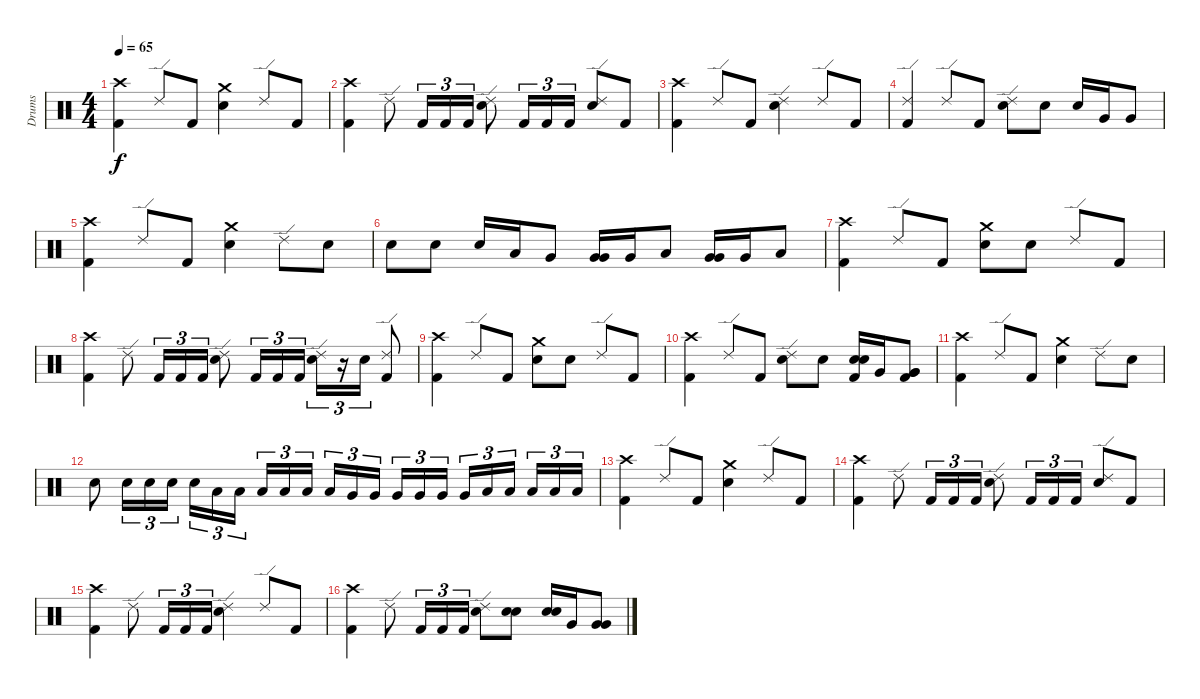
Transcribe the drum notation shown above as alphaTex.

\track ("Drums" "Drums") {instrument percussion}
\staff {score}
\articulation defaults
\ts (4 4)
\tempo 65
\clef neutral
\ks c
("Crash high (hit)" "Kick (hit) 2").4{dy f} "Ride (edge) 2".8 "Kick (hit) 2".8 ("Crash medium (hit)" "Electric Snare (hit)").4 "Ride (edge) 2".8 "Kick (hit) 2".8 |
("Crash high (hit)" "Kick (hit) 2").4 "Ride (edge) 2".8 "Kick (hit) 2".16{tu (3 2)} "Kick (hit) 2".16{tu (3 2)} "Kick (hit) 2".16{tu (3 2)} ("Ride (edge) 2" "Electric Snare (hit)").8 "Kick (hit) 2".16{tu (3 2)} "Kick (hit) 2".16{tu (3 2)} "Kick (hit) 2".16{tu (3 2)} ("Ride (edge) 2" "Electric Snare (hit)").8 "Kick (hit) 2".8 |
("Crash high (hit)" "Kick (hit) 2").4 "Ride (edge) 2".8 "Kick (hit) 2".8 ("Ride (edge) 2" "Electric Snare (hit)").4 "Ride (edge) 2".8 "Kick (hit) 2".8 |
("Ride (edge) 2" "Kick (hit) 2").4 "Ride (edge) 2".8 "Kick (hit) 2".8 ("Ride (edge) 2" "Electric Snare (hit)").8 "Electric Snare (hit)".8 "Electric Snare (hit)".16 "Very Low Tom (hit)".16 "Very Low Tom (hit)".8 |
("Crash high (hit)" "Kick (hit) 2").4 "Ride (edge) 2".8 "Kick (hit) 2".8 ("Crash medium (hit)" "Electric Snare (hit)").4 "Ride (edge) 2".8 "Electric Snare (hit)".8 |
"Electric Snare (hit)".8 "Electric Snare (hit)".8 "Electric Snare (hit)".16 "Low Tom (hit)".16 "Very Low Tom (hit)".8 ("Very Low Tom (hit)" "Very Low Tom (hit)").16{bu 60} "Very Low Tom (hit)".16 "Low Floor Tom (hit)".8 ("Very Low Tom (hit)" "Very Low Tom (hit)").16{bu 60} "Very Low Tom (hit)".16 "Low Floor Tom (hit)".8 |
("Crash high (hit)" "Kick (hit) 2").4 "Ride (edge) 2".8 "Kick (hit) 2".8 ("Crash medium (hit)" "Electric Snare (hit)").8 "Electric Snare (hit)".8 "Ride (edge) 2".8 "Kick (hit) 2".8 |
("Crash high (hit)" "Kick (hit) 2").4 "Ride (edge) 2".8 "Kick (hit) 2".16{tu (3 2)} "Kick (hit) 2".16{tu (3 2)} "Kick (hit) 2".16{tu (3 2)} ("Ride (edge) 2" "Electric Snare (hit)").8 "Kick (hit) 2".16{tu (3 2)} "Kick (hit) 2".16{tu (3 2)} "Kick (hit) 2".16{tu (3 2)} ("Ride (edge) 2" "Electric Snare (hit)").16{tu (3 2)} r.16{tu (3 2)} "Electric Snare (hit)".16{tu (3 2)} ("Ride (edge) 2" "Kick (hit) 2").8 |
("Crash high (hit)" "Kick (hit) 2").4 "Ride (edge) 2".8 "Kick (hit) 2".8 ("Crash medium (hit)" "Electric Snare (hit)").8 "Electric Snare (hit)".8 "Ride (edge) 2".8 "Kick (hit) 2".8 |
("Crash high (hit)" "Kick (hit) 2").4 "Ride (edge) 2".8 "Kick (hit) 2".8 ("Ride (edge) 2" "Electric Snare (hit)").8 "Electric Snare (hit)".8 ("Electric Snare (hit)" "Electric Snare (hit)" "Kick (hit) 2").16{bu 60} "Very Low Tom (hit)".16 ("Very Low Tom (hit)" "Very Low Tom (hit)" "Kick (hit) 2").8{bu 60} |
("Crash high (hit)" "Kick (hit) 2").4 "Ride (edge) 2".8 "Kick (hit) 2".8 ("Crash medium (hit)" "Electric Snare (hit)").4 "Ride (edge) 2".8 "Electric Snare (hit)".8 |
"Electric Snare (hit)".8 "Electric Snare (hit)".16{tu (3 2)} "Electric Snare (hit)".16{tu (3 2)} "Electric Snare (hit)".16{tu (3 2)} "Electric Snare (hit)".16{tu (3 2)} "Low Tom (hit)".16{tu (3 2)} "Low Tom (hit)".16{tu (3 2)} "Low Tom (hit)".16{tu (3 2)} "Low Tom (hit)".16{tu (3 2)} "Low Tom (hit)".16{tu (3 2)} "Low Tom (hit)".16{tu (3 2)} "Very Low Tom (hit)".16{tu (3 2)} "Very Low Tom (hit)".16{tu (3 2)} "Very Low Tom (hit)".16{tu (3 2)} "Very Low Tom (hit)".16{tu (3 2)} "Very Low Tom (hit)".16{tu (3 2)} "Very Low Tom (hit)".16{tu (3 2)} "Low Floor Tom (hit)".16{tu (3 2)} "Low Floor Tom (hit)".16{tu (3 2)} "Low Floor Tom (hit)".16{tu (3 2)} "Low Floor Tom (hit)".16{tu (3 2)} "Low Floor Tom (hit)".16{tu (3 2)} |
("Crash high (hit)" "Kick (hit) 2").4 "Ride (edge) 2".8 "Kick (hit) 2".8 ("Crash medium (hit)" "Electric Snare (hit)").4 "Ride (edge) 2".8 "Kick (hit) 2".8 |
("Crash high (hit)" "Kick (hit) 2").4 "Ride (edge) 2".8 "Kick (hit) 2".16{tu (3 2)} "Kick (hit) 2".16{tu (3 2)} "Kick (hit) 2".16{tu (3 2)} ("Ride (edge) 2" "Electric Snare (hit)").8 "Kick (hit) 2".16{tu (3 2)} "Kick (hit) 2".16{tu (3 2)} "Kick (hit) 2".16{tu (3 2)} ("Ride (edge) 2" "Electric Snare (hit)").8 "Kick (hit) 2".8 |
("Crash high (hit)" "Kick (hit) 2").4 "Ride (edge) 2".8 "Kick (hit) 2".16{tu (3 2)} "Kick (hit) 2".16{tu (3 2)} "Kick (hit) 2".16{tu (3 2)} ("Ride (edge) 2" "Electric Snare (hit)").4 "Ride (edge) 2".8 "Kick (hit) 2".8 |
("Crash high (hit)" "Kick (hit) 2").4 "Ride (edge) 2".8 "Kick (hit) 2".16{tu (3 2)} "Kick (hit) 2".16{tu (3 2)} "Kick (hit) 2".16{tu (3 2)} ("Ride (edge) 2" "Electric Snare (hit)").8 ("Electric Snare (hit)" "Electric Snare (hit)").8{bu 60} ("Electric Snare (hit)" "Electric Snare (hit)").16{bu 60} "Very Low Tom (hit)".16 ("Very Low Tom (hit)" "Very Low Tom (hit)").8{bu 60}
